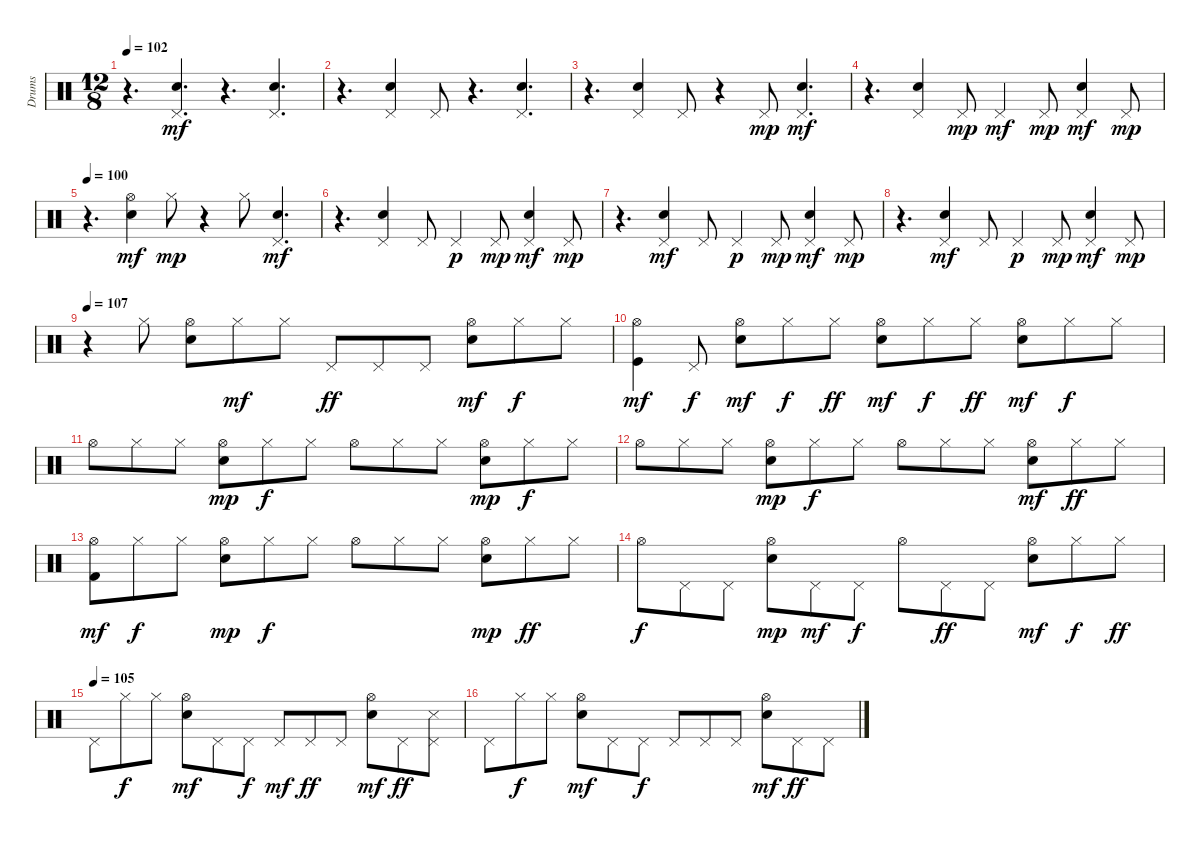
\track ("Drums" "Drums") {instrument percussion}
\staff {score}
\articulation defaults
\ts (12 8)
\tempo 102
\clef neutral
\ks c
r.4{d dy mf} ("Pedal Hi-Hat (hit)" "Snare (hit) 2").4{d} r.4{d} ("Pedal Hi-Hat (hit)" "Snare (hit) 2").4{d} |
r.4{d} ("Pedal Hi-Hat (hit)" "Snare (hit) 2").4 "Pedal Hi-Hat (hit)".8 r.4{d} ("Pedal Hi-Hat (hit)" "Snare (hit) 2").4{d} |
r.4{d} ("Pedal Hi-Hat (hit)" "Snare (hit) 2").4 "Pedal Hi-Hat (hit)".8 r.4 "Pedal Hi-Hat (hit)".8{dy mp} ("Pedal Hi-Hat (hit)" "Snare (hit) 2").4{d dy mf} |
r.4{d} ("Pedal Hi-Hat (hit)" "Snare (hit) 2").4 "Pedal Hi-Hat (hit)".8{dy mp} "Pedal Hi-Hat (hit)".4{dy mf} "Pedal Hi-Hat (hit)".8{dy mp} ("Pedal Hi-Hat (hit)" "Snare (hit) 2").4{dy mf} "Pedal Hi-Hat (hit)".8{dy mp} |
\tempo 100
r.4{d} ("Hi-Hat (open)" "Snare (hit) 2").4{dy mf} "Hi-Hat (closed)".8{dy mp} r.4 "Hi-Hat (closed)".8 ("Pedal Hi-Hat (hit)" "Snare (hit) 2").4{d dy mf} |
r.4{d} ("Pedal Hi-Hat (hit)" "Snare (hit) 2").4 "Pedal Hi-Hat (hit)".8 "Pedal Hi-Hat (hit)".4{dy p} "Pedal Hi-Hat (hit)".8{dy mp} ("Pedal Hi-Hat (hit)" "Snare (hit) 2").4{dy mf} "Pedal Hi-Hat (hit)".8{dy mp} |
r.4{d} ("Pedal Hi-Hat (hit)" "Snare (hit) 2").4{dy mf} "Pedal Hi-Hat (hit)".8 "Pedal Hi-Hat (hit)".4{dy p} "Pedal Hi-Hat (hit)".8{dy mp} ("Pedal Hi-Hat (hit)" "Snare (hit) 2").4{dy mf} "Pedal Hi-Hat (hit)".8{dy mp} |
r.4{d} ("Pedal Hi-Hat (hit)" "Snare (hit) 2").4{dy mf} "Pedal Hi-Hat (hit)".8 "Pedal Hi-Hat (hit)".4{dy p} "Pedal Hi-Hat (hit)".8{dy mp} ("Pedal Hi-Hat (hit)" "Snare (hit) 2").4{dy mf} "Pedal Hi-Hat (hit)".8{dy mp} |
\tempo 107
r.4 "Hi-Hat (closed)".8 ("Hi-Hat (open)" "Snare (hit) 2").8 "Hi-Hat (closed)".8{dy mf} "Hi-Hat (closed)".8 "Pedal Hi-Hat (hit)".8{dy ff} "Pedal Hi-Hat (hit)".8 "Pedal Hi-Hat (hit)".8 ("Hi-Hat (open)" "Snare (hit) 2").8{dy mf} "Hi-Hat (closed)".8{dy f} "Hi-Hat (closed)".8 |
("Hi-Hat (open)" "Kick (hit)").4{dy mf} "Pedal Hi-Hat (hit)".8{dy f} ("Hi-Hat (open)" "Snare (hit) 2").8{dy mf} "Hi-Hat (closed)".8{dy f} "Hi-Hat (closed)".8{dy ff} ("Hi-Hat (open)" "Snare (hit) 2").8{dy mf} "Hi-Hat (closed)".8{dy f} "Hi-Hat (closed)".8{dy ff} ("Hi-Hat (open)" "Snare (hit) 2").8{dy mf} "Hi-Hat (closed)".8{dy f} "Hi-Hat (closed)".8 |
"Hi-Hat (open)".8 "Hi-Hat (closed)".8 "Hi-Hat (closed)".8 ("Hi-Hat (open)" "Snare (hit) 2").8{dy mp} "Hi-Hat (closed)".8{dy f} "Hi-Hat (closed)".8 "Hi-Hat (open)".8 "Hi-Hat (closed)".8 "Hi-Hat (closed)".8 ("Hi-Hat (open)" "Snare (hit) 2").8{dy mp} "Hi-Hat (closed)".8{dy f} "Hi-Hat (closed)".8 |
"Hi-Hat (open)".8 "Hi-Hat (closed)".8 "Hi-Hat (closed)".8 ("Hi-Hat (open)" "Snare (hit) 2").8{dy mp} "Hi-Hat (closed)".8{dy f} "Hi-Hat (closed)".8 "Hi-Hat (open)".8 "Hi-Hat (closed)".8 "Hi-Hat (closed)".8 ("Hi-Hat (open)" "Snare (hit) 2").8{dy mf} "Hi-Hat (closed)".8{dy ff} "Hi-Hat (closed)".8 |
("Hi-Hat (open)" "Kick (hit) 2").8{dy mf} "Hi-Hat (closed)".8{dy f} "Hi-Hat (closed)".8 ("Hi-Hat (open)" "Snare (hit) 2").8{dy mp} "Hi-Hat (closed)".8{dy f} "Hi-Hat (closed)".8 "Hi-Hat (open)".8 "Hi-Hat (closed)".8 "Hi-Hat (closed)".8 ("Hi-Hat (open)" "Snare (hit) 2").8{dy mp} "Hi-Hat (closed)".8{dy ff} "Hi-Hat (closed)".8 |
"Hi-Hat (open)".8{dy f} "Pedal Hi-Hat (hit)".8 "Pedal Hi-Hat (hit)".8 ("Hi-Hat (open)" "Snare (hit) 2").8{dy mp} "Pedal Hi-Hat (hit)".8{dy mf} "Pedal Hi-Hat (hit)".8{dy f} "Hi-Hat (open)".8 "Pedal Hi-Hat (hit)".8{dy ff} "Pedal Hi-Hat (hit)".8 ("Hi-Hat (open)" "Snare (hit) 2").8{dy mf} "Hi-Hat (closed)".8{dy f} "Hi-Hat (closed)".8{dy ff} |
\tempo (105)
"Pedal Hi-Hat (hit)".8 "Hi-Hat (closed)".8{dy f} "Hi-Hat (closed)".8 ("Hi-Hat (open)" "Snare (hit) 2").8{dy mf} "Pedal Hi-Hat (hit)".8 "Pedal Hi-Hat (hit)".8{dy f} "Pedal Hi-Hat (hit)".8{dy mf} "Pedal Hi-Hat (hit)".8{dy ff} "Pedal Hi-Hat (hit)".8 ("Hi-Hat (open)" "Snare (hit) 2").8{dy mf} "Pedal Hi-Hat (hit)".8{dy ff} ("Pedal Hi-Hat (hit)" "Snare (side stick) 3").8 |
"Pedal Hi-Hat (hit)".8 "Hi-Hat (closed)".8{dy f} "Hi-Hat (closed)".8 ("Hi-Hat (open)" "Snare (hit) 2").8{dy mf} "Pedal Hi-Hat (hit)".8 "Pedal Hi-Hat (hit)".8{dy f} "Pedal Hi-Hat (hit)".8 "Pedal Hi-Hat (hit)".8 "Pedal Hi-Hat (hit)".8 ("Hi-Hat (open)" "Snare (hit) 2").8{dy mf} "Pedal Hi-Hat (hit)".8{dy ff} "Pedal Hi-Hat (hit)".8
